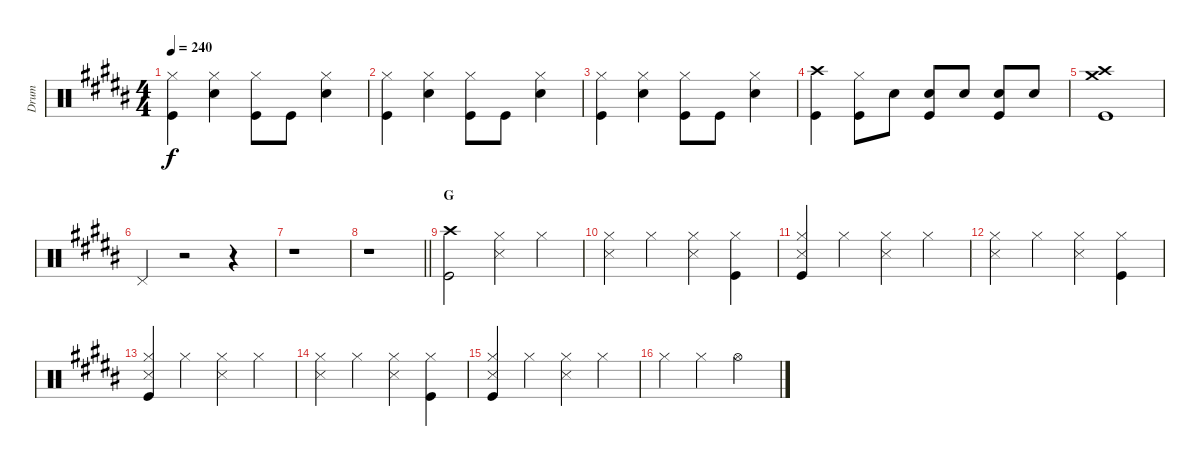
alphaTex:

\track ("Drum" "Drum") {instrument percussion}
\staff {score}
\articulation defaults
\ts (4 4)
\tempo 240
\clef neutral
\ks b
("Kick (hit)" "Hi-Hat (closed)").4{dy f} ("Hi-Hat (closed)" "Snare (hit) 2").4 ("Hi-Hat (closed)" "Kick (hit)").8 "Kick (hit)".8 ("Snare (hit) 2" "Hi-Hat (closed)").4 |
("Kick (hit)" "Hi-Hat (closed)").4 ("Hi-Hat (closed)" "Snare (hit) 2").4 ("Hi-Hat (closed)" "Kick (hit)").8 "Kick (hit)".8 ("Snare (hit) 2" "Hi-Hat (closed)").4 |
("Kick (hit)" "Hi-Hat (closed)").4 ("Hi-Hat (closed)" "Snare (hit) 2").4 ("Hi-Hat (closed)" "Kick (hit)").8 "Kick (hit)".8 ("Snare (hit) 2" "Hi-Hat (closed)").4 |
("Kick (hit)" "Crash high (hit)").4 ("Kick (hit)" "Hi-Hat (closed)").8 "Snare (hit) 2".8 ("Snare (hit) 2" "Kick (hit)").8 "Snare (hit) 2".8 ("Snare (hit) 2" "Kick (hit)").8 "Snare (hit) 2".8 |
("Kick (hit)" "Crash high (hit)" "Crash medium (hit)").1 |
"Pedal Hi-Hat (hit)".4 r.2 r.4 |
r.1 |
\barLineRight lightlight
r.1 |
\section ("" "G")
("Kick (hit)" "Crash high (hit)").2 ("Hi-Hat (closed)" "Snare (side stick) 3").4 "Hi-Hat (closed)".4 |
("Hi-Hat (closed)" "Snare (side stick) 3").4 "Hi-Hat (closed)".4 ("Snare (side stick) 3" "Hi-Hat (closed)").4 ("Hi-Hat (closed)" "Kick (hit)").4 |
("Kick (hit)" "Snare (side stick) 3" "Hi-Hat (closed)").4 "Hi-Hat (closed)".4 ("Hi-Hat (closed)" "Snare (side stick) 3").4 "Hi-Hat (closed)".4 |
("Hi-Hat (closed)" "Snare (side stick) 3").4 "Hi-Hat (closed)".4 ("Hi-Hat (closed)" "Snare (side stick) 3").4 ("Hi-Hat (closed)" "Kick (hit)").4 |
("Kick (hit)" "Snare (side stick) 3" "Hi-Hat (closed)").4 "Hi-Hat (closed)".4 ("Hi-Hat (closed)" "Snare (side stick) 3").4 "Hi-Hat (closed)".4 |
("Hi-Hat (closed)" "Snare (side stick) 3").4 "Hi-Hat (closed)".4 ("Hi-Hat (closed)" "Snare (side stick) 3").4 ("Hi-Hat (closed)" "Kick (hit)").4 |
("Hi-Hat (closed)" "Snare (side stick) 3" "Kick (hit)").4 "Hi-Hat (closed)".4 ("Hi-Hat (closed)" "Snare (side stick) 3").4 "Hi-Hat (closed)".4 |
"Hi-Hat (closed)".4 "Hi-Hat (closed)".4 "Hi-Hat (open)".2
